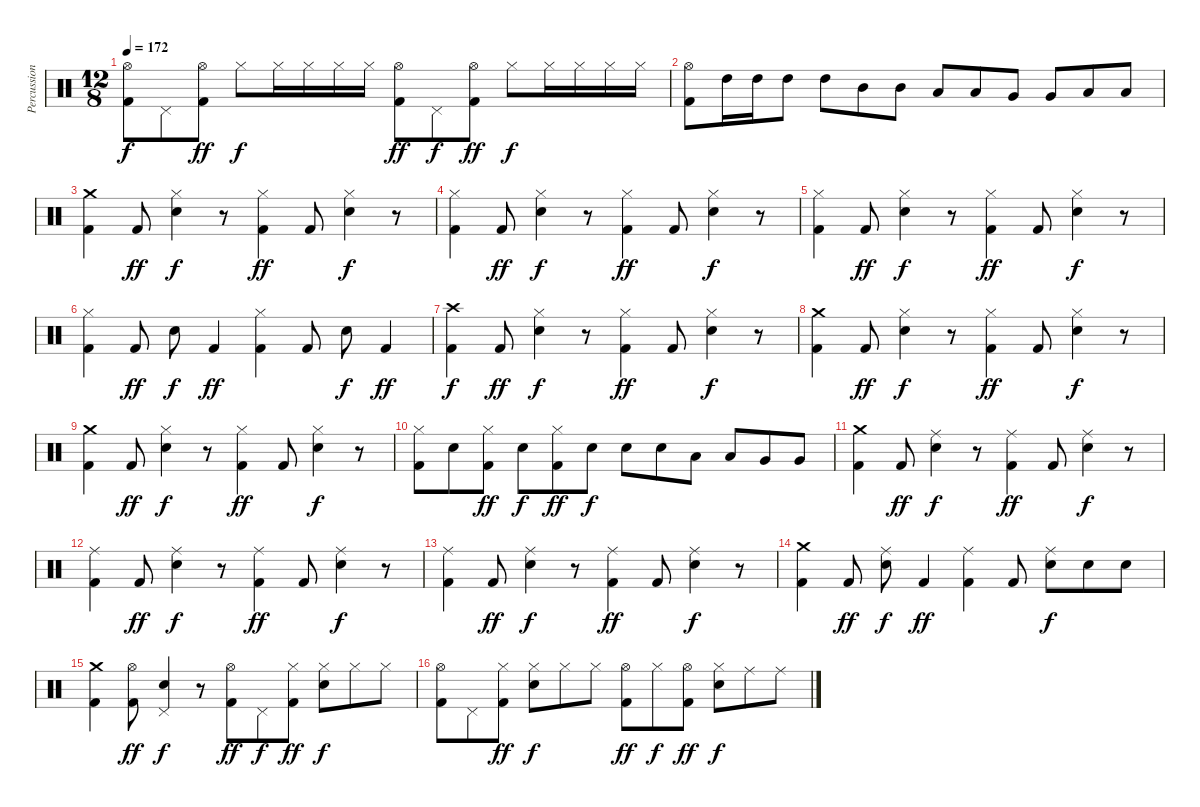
\track ("Percussion" "Percussion") {instrument percussion}
\staff {score}
\articulation defaults
\ts (12 8)
\tempo 172
\clef neutral
\ks c
("Kick (hit) 2" "Hi-Hat (open)").8{dy f} "Pedal Hi-Hat (hit)".8 ("Kick (hit) 2" "Hi-Hat (open)").8{dy ff} "Hi-Hat (closed)".8{dy f} "Hi-Hat (closed)".16 "Hi-Hat (closed)".16 "Hi-Hat (closed)".16 "Hi-Hat (closed)".16 ("Kick (hit) 2" "Hi-Hat (open)").8{dy ff} "Pedal Hi-Hat (hit)".8{dy f} ("Kick (hit) 2" "Hi-Hat (open)").8{dy ff} "Hi-Hat (closed)".8{dy f} "Hi-Hat (closed)".16 "Hi-Hat (closed)".16 "Hi-Hat (closed)".16 "Hi-Hat (closed)".16 |
("Kick (hit) 2" "Hi-Hat (open)").8 "High Tom (hit)".16 "High Tom (hit)".16 "High Tom (hit)".8 "High Tom (hit)".8 "Mid Tom (hit)".8 "Mid Tom (hit)".8 "Low Tom (hit)".8 "Low Tom (hit)".8 "Very Low Tom (hit)".8 "Very Low Tom (hit)".8 "Low Floor Tom (hit)".8 "Low Floor Tom (hit)".8 |
("Kick (hit) 2" "Crash medium (hit)").4 "Kick (hit) 2".8{dy ff} ("Snare (hit) 2" "Hi-Hat (closed)").4{dy f} r.8 ("Kick (hit) 2" "Hi-Hat (closed)").4{dy ff} "Kick (hit) 2".8 ("Snare (hit) 2" "Hi-Hat (closed)").4{dy f} r.8 |
("Kick (hit) 2" "Hi-Hat (closed)").4 "Kick (hit) 2".8{dy ff} ("Snare (hit) 2" "Hi-Hat (closed)").4{dy f} r.8 ("Kick (hit) 2" "Hi-Hat (closed)").4{dy ff} "Kick (hit) 2".8 ("Snare (hit) 2" "Hi-Hat (closed)").4{dy f} r.8 |
("Kick (hit) 2" "Hi-Hat (closed)").4 "Kick (hit) 2".8{dy ff} ("Snare (hit) 2" "Hi-Hat (closed)").4{dy f} r.8 ("Kick (hit) 2" "Hi-Hat (closed)").4{dy ff} "Kick (hit) 2".8 ("Snare (hit) 2" "Hi-Hat (closed)").4{dy f} r.8 |
("Kick (hit) 2" "Hi-Hat (closed)").4 "Kick (hit) 2".8{dy ff} "Snare (hit) 2".8{dy f} "Kick (hit) 2".4{dy ff} ("Kick (hit) 2" "Hi-Hat (closed)").4 "Kick (hit) 2".8 "Snare (hit) 2".8{dy f} "Kick (hit) 2".4{dy ff} |
("Kick (hit) 2" "Crash high (hit)").4{dy f} "Kick (hit) 2".8{dy ff} ("Snare (hit) 2" "Hi-Hat (closed)").4{dy f} r.8 ("Kick (hit) 2" "Hi-Hat (closed)").4{dy ff} "Kick (hit) 2".8 ("Snare (hit) 2" "Hi-Hat (closed)").4{dy f} r.8 |
("Kick (hit) 2" "Crash medium (hit)").4 "Kick (hit) 2".8{dy ff} ("Snare (hit) 2" "Hi-Hat (closed)").4{dy f} r.8 ("Kick (hit) 2" "Hi-Hat (closed)").4{dy ff} "Kick (hit) 2".8 ("Snare (hit) 2" "Hi-Hat (closed)").4{dy f} r.8 |
("Kick (hit) 2" "Crash medium (hit)").4 "Kick (hit) 2".8{dy ff} ("Snare (hit) 2" "Hi-Hat (closed)").4{dy f} r.8 ("Kick (hit) 2" "Hi-Hat (closed)").4{dy ff} "Kick (hit) 2".8 ("Snare (hit) 2" "Hi-Hat (closed)").4{dy f} r.8 |
("Kick (hit) 2" "Hi-Hat (closed)").8 "Snare (hit) 2".8 ("Kick (hit) 2" "Hi-Hat (closed)").8{dy ff} "Snare (hit) 2".8{dy f} ("Kick (hit) 2" "Hi-Hat (closed)").8{dy ff} "Snare (hit) 2".8{dy f} "Snare (hit) 2".8 "Snare (hit) 2".8 "Low Tom (hit)".8 "Low Tom (hit)".8 "Very Low Tom (hit)".8 "Very Low Tom (hit)".8 |
("Kick (hit) 2" "Crash medium (hit)").4 "Kick (hit) 2".8{dy ff} ("Snare (hit) 2" "Ride (middle)").4{dy f} r.8 ("Kick (hit) 2" "Ride (middle)").4{dy ff} "Kick (hit) 2".8 ("Snare (hit) 2" "Ride (middle)").4{dy f} r.8 |
("Kick (hit) 2" "Ride (middle)").4 "Kick (hit) 2".8{dy ff} ("Snare (hit) 2" "Ride (middle)").4{dy f} r.8 ("Kick (hit) 2" "Ride (middle)").4{dy ff} "Kick (hit) 2".8 ("Snare (hit) 2" "Ride (middle)").4{dy f} r.8 |
("Kick (hit) 2" "Ride (middle)").4 "Kick (hit) 2".8{dy ff} ("Snare (hit) 2" "Ride (middle)").4{dy f} r.8 ("Kick (hit) 2" "Ride (middle)").4{dy ff} "Kick (hit) 2".8 ("Snare (hit) 2" "Ride (middle)").4{dy f} r.8 |
("Kick (hit) 2" "Crash medium (hit)").4 "Kick (hit) 2".8{dy ff} ("Snare (hit) 2" "Ride (middle)").8{dy f} "Kick (hit) 2".4{dy ff} ("Kick (hit) 2" "Ride (middle)").4 "Kick (hit) 2".8 ("Snare (hit) 2" "Ride (middle)").8{dy f} "Snare (hit) 2".8 "Snare (hit) 2".8 |
("Kick (hit) 2" "Crash medium (hit)").4 ("Kick (hit) 2" "Hi-Hat (open)").8{dy ff} ("Snare (hit) 2" "Pedal Hi-Hat (hit)").4{dy f} r.8 ("Kick (hit) 2" "Hi-Hat (open)").8{dy ff} "Pedal Hi-Hat (hit)".8{dy f} ("Kick (hit) 2" "Hi-Hat (closed)").8{dy ff} ("Snare (hit) 2" "Hi-Hat (closed)").8{dy f} "Hi-Hat (closed)".8 "Hi-Hat (closed)".8 |
("Kick (hit) 2" "Hi-Hat (open)").8 "Pedal Hi-Hat (hit)".8 ("Kick (hit) 2" "Hi-Hat (closed)").8{dy ff} ("Snare (hit) 2" "Hi-Hat (closed)").8{dy f} "Hi-Hat (closed)".8 "Hi-Hat (closed)".8 ("Kick (hit) 2" "Hi-Hat (open)").8{dy ff} "Hi-Hat (closed)".8{dy f} ("Kick (hit) 2" "Hi-Hat (open)").8{dy ff} ("Snare (hit) 2" "Hi-Hat (closed)").8{dy f} "Ride (middle)".8 "Ride (middle)".8
